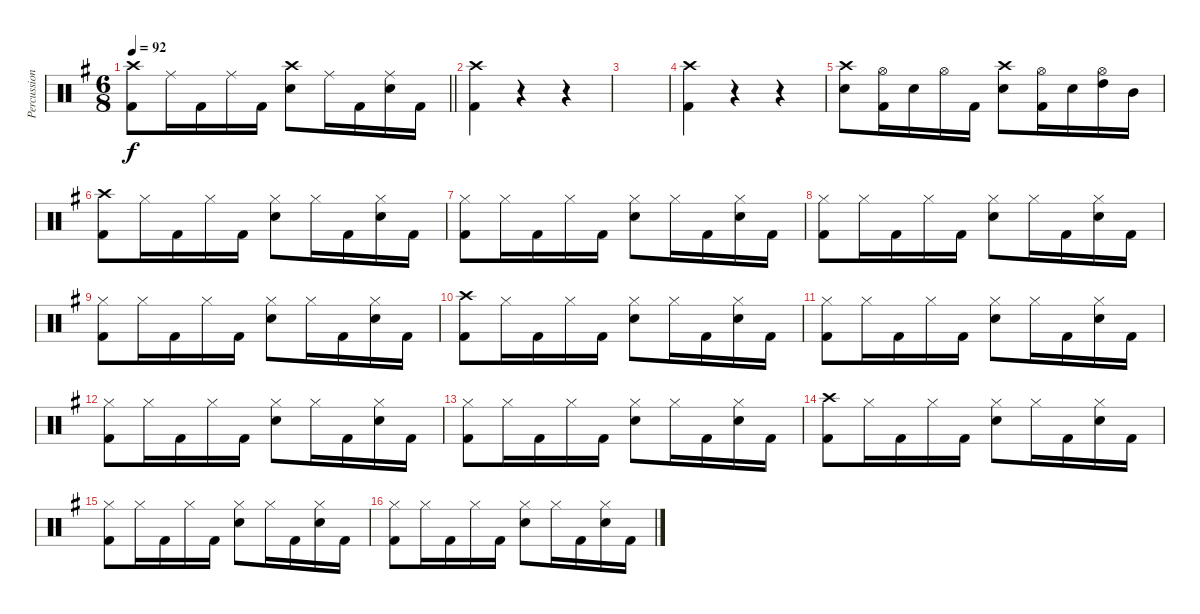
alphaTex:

\track ("Percussion" "Percussion") {instrument percussion}
\staff {score}
\articulation defaults
\ts (6 8)
\tempo 92
\clef neutral
\barLineRight lightlight
\ks g
("Crash high (hit)" "Kick (hit) 2").8{dy f} "Ride (middle)".16 "Kick (hit) 2".16 "Ride (middle)".16 "Kick (hit) 2".16 ("Electric Snare (hit)" "Crash high (hit)").8 "Ride (middle)".16 "Kick (hit) 2".16 ("Electric Snare (hit)" "Ride (middle)").16 "Kick (hit) 2".16 |
("Crash high (hit)" "Kick (hit) 2").4 r.4 r.4 |
|
("Crash high (hit)" "Kick (hit) 2").4 r.4 r.4 |
("Crash high (hit)" "Electric Snare (hit)").8 ("Kick (hit) 2" "Hi-Hat (open)").16 "Electric Snare (hit)".16 "Hi-Hat (open)".16 "Kick (hit) 2".16 ("Crash high (hit)" "Electric Snare (hit)").8 ("Kick (hit) 2" "Hi-Hat (open)").16 "Electric Snare (hit)".16 ("Hi-Hat (open)" "High Tom (hit)").16 "Mid Tom (hit)".16 |
("Crash high (hit)" "Kick (hit) 2").8 "Hi-Hat (closed)".16 "Kick (hit) 2".16 "Hi-Hat (closed)".16 "Kick (hit) 2".16 ("Hi-Hat (closed)" "Electric Snare (hit)").8 "Hi-Hat (closed)".16 "Kick (hit) 2".16 ("Electric Snare (hit)" "Hi-Hat (closed)").16 "Kick (hit) 2".16 |
("Hi-Hat (closed)" "Kick (hit) 2").8 "Hi-Hat (closed)".16 "Kick (hit) 2".16 "Hi-Hat (closed)".16 "Kick (hit) 2".16 ("Hi-Hat (closed)" "Electric Snare (hit)").8 "Hi-Hat (closed)".16 "Kick (hit) 2".16 ("Electric Snare (hit)" "Hi-Hat (closed)").16 "Kick (hit) 2".16 |
("Hi-Hat (closed)" "Kick (hit) 2").8 "Hi-Hat (closed)".16 "Kick (hit) 2".16 "Hi-Hat (closed)".16 "Kick (hit) 2".16 ("Hi-Hat (closed)" "Electric Snare (hit)").8 "Hi-Hat (closed)".16 "Kick (hit) 2".16 ("Electric Snare (hit)" "Hi-Hat (closed)").16 "Kick (hit) 2".16 |
("Hi-Hat (closed)" "Kick (hit) 2").8 "Hi-Hat (closed)".16 "Kick (hit) 2".16 "Hi-Hat (closed)".16 "Kick (hit) 2".16 ("Hi-Hat (closed)" "Electric Snare (hit)").8 "Hi-Hat (closed)".16 "Kick (hit) 2".16 ("Electric Snare (hit)" "Hi-Hat (closed)").16 "Kick (hit) 2".16 |
("Crash high (hit)" "Kick (hit) 2").8 "Hi-Hat (closed)".16 "Kick (hit) 2".16 "Hi-Hat (closed)".16 "Kick (hit) 2".16 ("Hi-Hat (closed)" "Electric Snare (hit)").8 "Hi-Hat (closed)".16 "Kick (hit) 2".16 ("Electric Snare (hit)" "Hi-Hat (closed)").16 "Kick (hit) 2".16 |
("Hi-Hat (closed)" "Kick (hit) 2").8 "Hi-Hat (closed)".16 "Kick (hit) 2".16 "Hi-Hat (closed)".16 "Kick (hit) 2".16 ("Hi-Hat (closed)" "Electric Snare (hit)").8 "Hi-Hat (closed)".16 "Kick (hit) 2".16 ("Electric Snare (hit)" "Hi-Hat (closed)").16 "Kick (hit) 2".16 |
("Hi-Hat (closed)" "Kick (hit) 2").8 "Hi-Hat (closed)".16 "Kick (hit) 2".16 "Hi-Hat (closed)".16 "Kick (hit) 2".16 ("Hi-Hat (closed)" "Electric Snare (hit)").8 "Hi-Hat (closed)".16 "Kick (hit) 2".16 ("Electric Snare (hit)" "Hi-Hat (closed)").16 "Kick (hit) 2".16 |
("Hi-Hat (closed)" "Kick (hit) 2").8 "Hi-Hat (closed)".16 "Kick (hit) 2".16 "Hi-Hat (closed)".16 "Kick (hit) 2".16 ("Hi-Hat (closed)" "Electric Snare (hit)").8 "Hi-Hat (closed)".16 "Kick (hit) 2".16 ("Electric Snare (hit)" "Hi-Hat (closed)").16 "Kick (hit) 2".16 |
("Crash high (hit)" "Kick (hit) 2").8 "Hi-Hat (closed)".16 "Kick (hit) 2".16 "Hi-Hat (closed)".16 "Kick (hit) 2".16 ("Hi-Hat (closed)" "Electric Snare (hit)").8 "Hi-Hat (closed)".16 "Kick (hit) 2".16 ("Electric Snare (hit)" "Hi-Hat (closed)").16 "Kick (hit) 2".16 |
("Hi-Hat (closed)" "Kick (hit) 2").8 "Hi-Hat (closed)".16 "Kick (hit) 2".16 "Hi-Hat (closed)".16 "Kick (hit) 2".16 ("Hi-Hat (closed)" "Electric Snare (hit)").8 "Hi-Hat (closed)".16 "Kick (hit) 2".16 ("Electric Snare (hit)" "Hi-Hat (closed)").16 "Kick (hit) 2".16 |
("Hi-Hat (closed)" "Kick (hit) 2").8 "Hi-Hat (closed)".16 "Kick (hit) 2".16 "Hi-Hat (closed)".16 "Kick (hit) 2".16 ("Hi-Hat (closed)" "Electric Snare (hit)").8 "Hi-Hat (closed)".16 "Kick (hit) 2".16 ("Electric Snare (hit)" "Hi-Hat (closed)").16 "Kick (hit) 2".16
